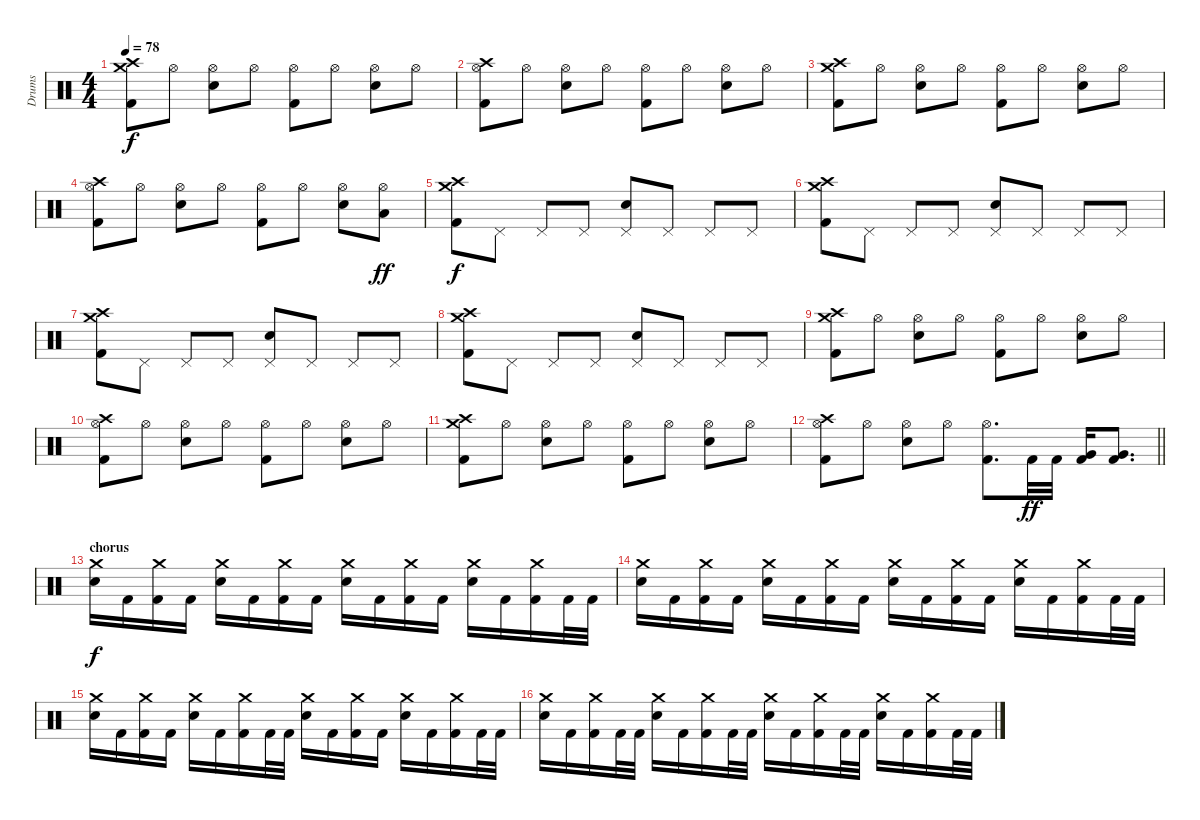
\track ("Drums" "Drums") {instrument percussion}
\staff {score}
\articulation defaults
\ts (4 4)
\tempo 78
\clef neutral
\ks c
("Crash high (hit)" "Kick (hit) 2" "Crash medium (hit)").8{dy f} "Hi-Hat (open)".8 ("Electric Snare (hit)" "Hi-Hat (open)").8 "Hi-Hat (open)".8 ("Kick (hit) 2" "Hi-Hat (open)").8 "Hi-Hat (open)".8 ("Electric Snare (hit)" "Hi-Hat (open)").8 "Hi-Hat (open)".8 |
("Crash high (hit)" "Kick (hit) 2" "Hi-Hat (open)").8 "Hi-Hat (open)".8 ("Electric Snare (hit)" "Hi-Hat (open)").8 "Hi-Hat (open)".8 ("Kick (hit) 2" "Hi-Hat (open)").8 "Hi-Hat (open)".8 ("Electric Snare (hit)" "Hi-Hat (open)").8 "Hi-Hat (open)".8 |
("Crash high (hit)" "Kick (hit) 2" "Crash medium (hit)").8 "Hi-Hat (open)".8 ("Electric Snare (hit)" "Hi-Hat (open)").8 "Hi-Hat (open)".8 ("Kick (hit) 2" "Hi-Hat (open)").8 "Hi-Hat (open)".8 ("Electric Snare (hit)" "Hi-Hat (open)").8 "Hi-Hat (open)".8 |
("Crash high (hit)" "Kick (hit) 2" "Hi-Hat (open)").8 "Hi-Hat (open)".8 ("Electric Snare (hit)" "Hi-Hat (open)").8 "Hi-Hat (open)".8 ("Kick (hit) 2" "Hi-Hat (open)").8 "Hi-Hat (open)".8 ("Electric Snare (hit)" "Hi-Hat (open)").8 ("Low Floor Tom (hit)" "Hi-Hat (open)").8{dy ff} |
("Crash high (hit)" "Kick (hit) 2" "Crash medium (hit)").8{dy f} "Pedal Hi-Hat (hit)".8 "Pedal Hi-Hat (hit)".8 "Pedal Hi-Hat (hit)".8 ("Electric Snare (hit)" "Pedal Hi-Hat (hit)").8 "Pedal Hi-Hat (hit)".8 "Pedal Hi-Hat (hit)".8 "Pedal Hi-Hat (hit)".8 |
("Crash high (hit)" "Kick (hit) 2" "Crash medium (hit)").8 "Pedal Hi-Hat (hit)".8 "Pedal Hi-Hat (hit)".8 "Pedal Hi-Hat (hit)".8 ("Electric Snare (hit)" "Pedal Hi-Hat (hit)").8 "Pedal Hi-Hat (hit)".8 "Pedal Hi-Hat (hit)".8 "Pedal Hi-Hat (hit)".8 |
("Crash high (hit)" "Kick (hit) 2" "Crash medium (hit)").8 "Pedal Hi-Hat (hit)".8 "Pedal Hi-Hat (hit)".8 "Pedal Hi-Hat (hit)".8 ("Electric Snare (hit)" "Pedal Hi-Hat (hit)").8 "Pedal Hi-Hat (hit)".8 "Pedal Hi-Hat (hit)".8 "Pedal Hi-Hat (hit)".8 |
("Crash high (hit)" "Kick (hit) 2" "Crash medium (hit)").8 "Pedal Hi-Hat (hit)".8 "Pedal Hi-Hat (hit)".8 "Pedal Hi-Hat (hit)".8 ("Electric Snare (hit)" "Pedal Hi-Hat (hit)").8 "Pedal Hi-Hat (hit)".8 "Pedal Hi-Hat (hit)".8 "Pedal Hi-Hat (hit)".8 |
("Crash high (hit)" "Kick (hit) 2" "Crash medium (hit)").8 "Hi-Hat (open)".8 ("Electric Snare (hit)" "Hi-Hat (open)").8 "Hi-Hat (open)".8 ("Kick (hit) 2" "Hi-Hat (open)").8 "Hi-Hat (open)".8 ("Electric Snare (hit)" "Hi-Hat (open)").8 "Hi-Hat (open)".8 |
("Crash high (hit)" "Kick (hit) 2" "Hi-Hat (open)").8 "Hi-Hat (open)".8 ("Electric Snare (hit)" "Hi-Hat (open)").8 "Hi-Hat (open)".8 ("Kick (hit) 2" "Hi-Hat (open)").8 "Hi-Hat (open)".8 ("Electric Snare (hit)" "Hi-Hat (open)").8 "Hi-Hat (open)".8 |
("Crash high (hit)" "Kick (hit) 2" "Crash medium (hit)").8 "Hi-Hat (open)".8 ("Electric Snare (hit)" "Hi-Hat (open)").8 "Hi-Hat (open)".8 ("Kick (hit) 2" "Hi-Hat (open)").8 "Hi-Hat (open)".8 ("Electric Snare (hit)" "Hi-Hat (open)").8 "Hi-Hat (open)".8 |
\barLineRight lightlight
("Crash high (hit)" "Kick (hit) 2" "Hi-Hat (open)").8 "Hi-Hat (open)".8 ("Electric Snare (hit)" "Hi-Hat (open)").8 "Hi-Hat (open)".8 ("Kick (hit) 2" "Hi-Hat (open)").8{d} "Kick (hit) 2".32{dy ff} "Kick (hit) 2".32 ("Kick (hit) 2" "Very Low Tom (hit)").16 ("Kick (hit) 2" "Very Low Tom (hit)").8{d} |
\section ("" "chorus")
("Electric Snare (hit)" "Crash medium (hit)").16{dy f} "Kick (hit) 2".16 ("Kick (hit) 2" "Crash medium (hit)").16 "Kick (hit) 2".16 ("Electric Snare (hit)" "Crash medium (hit)").16 "Kick (hit) 2".16 ("Kick (hit) 2" "Crash medium (hit)").16 "Kick (hit) 2".16 ("Electric Snare (hit)" "Crash medium (hit)").16 "Kick (hit) 2".16 ("Kick (hit) 2" "Crash medium (hit)").16 "Kick (hit) 2".16 ("Electric Snare (hit)" "Crash medium (hit)").16 "Kick (hit) 2".16 ("Kick (hit) 2" "Crash medium (hit)").16 "Kick (hit) 2".32 "Kick (hit) 2".32 |
("Electric Snare (hit)" "Crash medium (hit)").16 "Kick (hit) 2".16 ("Kick (hit) 2" "Crash medium (hit)").16 "Kick (hit) 2".16 ("Electric Snare (hit)" "Crash medium (hit)").16 "Kick (hit) 2".16 ("Kick (hit) 2" "Crash medium (hit)").16 "Kick (hit) 2".16 ("Electric Snare (hit)" "Crash medium (hit)").16 "Kick (hit) 2".16 ("Kick (hit) 2" "Crash medium (hit)").16 "Kick (hit) 2".16 ("Electric Snare (hit)" "Crash medium (hit)").16 "Kick (hit) 2".16 ("Kick (hit) 2" "Crash medium (hit)").16 "Kick (hit) 2".32 "Kick (hit) 2".32 |
("Electric Snare (hit)" "Crash medium (hit)").16 "Kick (hit) 2".16 ("Kick (hit) 2" "Crash medium (hit)").16 "Kick (hit) 2".16 ("Electric Snare (hit)" "Crash medium (hit)").16 "Kick (hit) 2".16 ("Kick (hit) 2" "Crash medium (hit)").16 "Kick (hit) 2".32 "Kick (hit) 2".32 ("Electric Snare (hit)" "Crash medium (hit)").16 "Kick (hit) 2".16 ("Kick (hit) 2" "Crash medium (hit)").16 "Kick (hit) 2".16 ("Electric Snare (hit)" "Crash medium (hit)").16 "Kick (hit) 2".16 ("Kick (hit) 2" "Crash medium (hit)").16 "Kick (hit) 2".32 "Kick (hit) 2".32 |
("Electric Snare (hit)" "Crash medium (hit)").16 "Kick (hit) 2".16 ("Kick (hit) 2" "Crash medium (hit)").16 "Kick (hit) 2".32 "Kick (hit) 2".32 ("Electric Snare (hit)" "Crash medium (hit)").16 "Kick (hit) 2".16 ("Kick (hit) 2" "Crash medium (hit)").16 "Kick (hit) 2".32 "Kick (hit) 2".32 ("Electric Snare (hit)" "Crash medium (hit)").16 "Kick (hit) 2".16 ("Kick (hit) 2" "Crash medium (hit)").16 "Kick (hit) 2".32 "Kick (hit) 2".32 ("Electric Snare (hit)" "Crash medium (hit)").16 "Kick (hit) 2".16 ("Kick (hit) 2" "Crash medium (hit)").16 "Kick (hit) 2".32 "Kick (hit) 2".32
